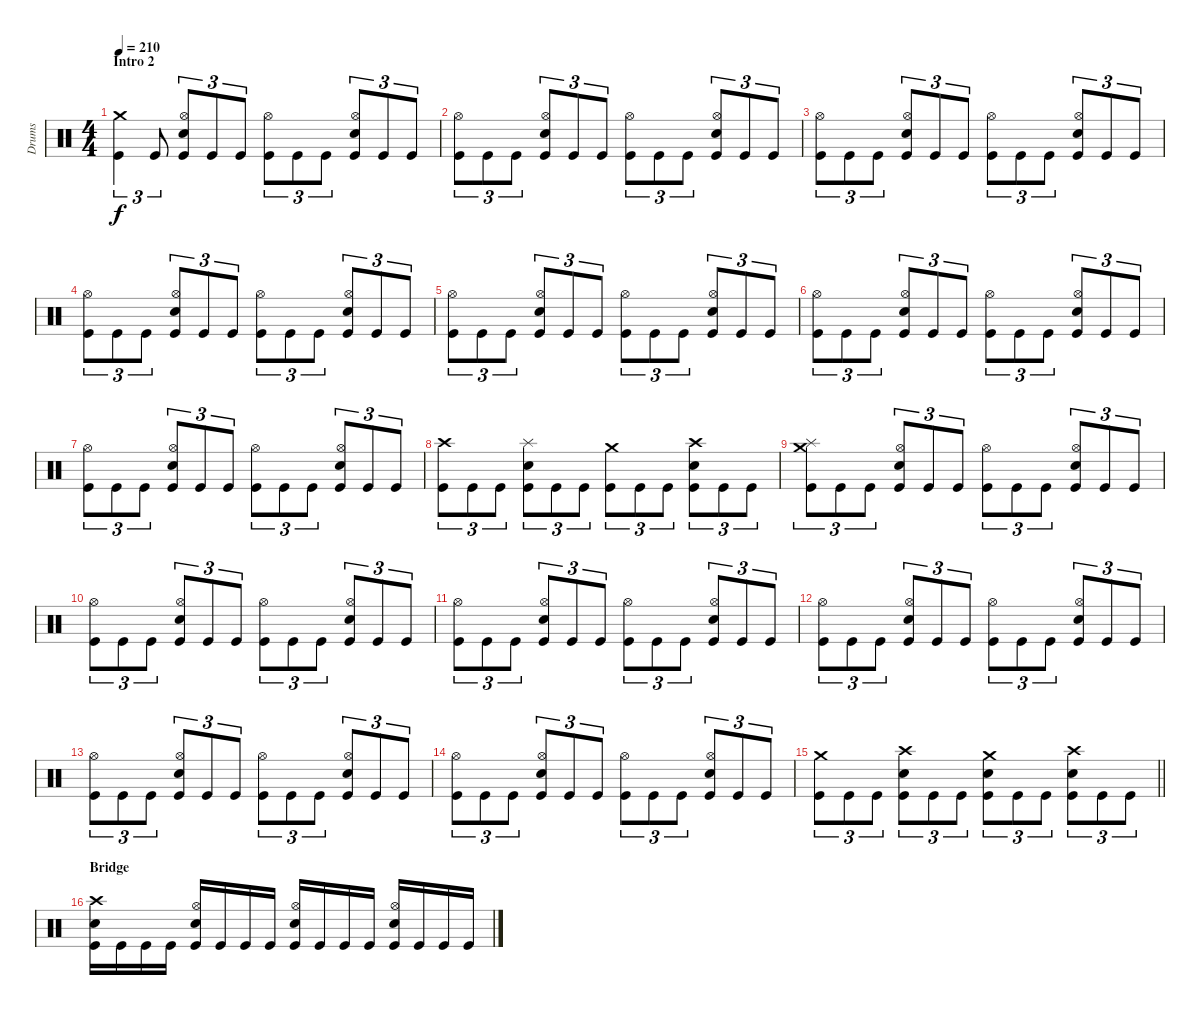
\track ("Drums" "Drums") {instrument percussion}
\staff {score}
\articulation defaults
\ts (4 4)
\section ("" "Intro 2")
\tempo 210
\clef neutral
\ks c
("Crash medium (hit)" "Kick (hit)").4{tu (3 2) dy f} "Kick (hit)".8{tu (3 2)} ("Hi-Hat (open)" "Electric Snare (hit)" "Kick (hit)").8{tu (3 2)} "Kick (hit)".8{tu (3 2)} "Kick (hit)".8{tu (3 2)} ("Hi-Hat (open)" "Kick (hit)").8{tu (3 2)} "Kick (hit)".8{tu (3 2)} "Kick (hit)".8{tu (3 2)} ("Hi-Hat (open)" "Electric Snare (hit)" "Kick (hit)").8{tu (3 2)} "Kick (hit)".8{tu (3 2)} "Kick (hit)".8{tu (3 2)} |
("Hi-Hat (open)" "Kick (hit)").8{tu (3 2)} "Kick (hit)".8{tu (3 2)} "Kick (hit)".8{tu (3 2)} ("Hi-Hat (open)" "Electric Snare (hit)" "Kick (hit)").8{tu (3 2)} "Kick (hit)".8{tu (3 2)} "Kick (hit)".8{tu (3 2)} ("Hi-Hat (open)" "Kick (hit)").8{tu (3 2)} "Kick (hit)".8{tu (3 2)} "Kick (hit)".8{tu (3 2)} ("Hi-Hat (open)" "Electric Snare (hit)" "Kick (hit)").8{tu (3 2)} "Kick (hit)".8{tu (3 2)} "Kick (hit)".8{tu (3 2)} |
("Hi-Hat (open)" "Kick (hit)").8{tu (3 2)} "Kick (hit)".8{tu (3 2)} "Kick (hit)".8{tu (3 2)} ("Hi-Hat (open)" "Electric Snare (hit)" "Kick (hit)").8{tu (3 2)} "Kick (hit)".8{tu (3 2)} "Kick (hit)".8{tu (3 2)} ("Hi-Hat (open)" "Kick (hit)").8{tu (3 2)} "Kick (hit)".8{tu (3 2)} "Kick (hit)".8{tu (3 2)} ("Hi-Hat (open)" "Electric Snare (hit)" "Kick (hit)").8{tu (3 2)} "Kick (hit)".8{tu (3 2)} "Kick (hit)".8{tu (3 2)} |
("Hi-Hat (open)" "Kick (hit)").8{tu (3 2)} "Kick (hit)".8{tu (3 2)} "Kick (hit)".8{tu (3 2)} ("Hi-Hat (open)" "Electric Snare (hit)" "Kick (hit)").8{tu (3 2)} "Kick (hit)".8{tu (3 2)} "Kick (hit)".8{tu (3 2)} ("Hi-Hat (open)" "Kick (hit)").8{tu (3 2)} "Kick (hit)".8{tu (3 2)} "Kick (hit)".8{tu (3 2)} ("Hi-Hat (open)" "Electric Snare (hit)" "Kick (hit)").8{tu (3 2)} "Kick (hit)".8{tu (3 2)} "Kick (hit)".8{tu (3 2)} |
("Hi-Hat (open)" "Kick (hit)").8{tu (3 2)} "Kick (hit)".8{tu (3 2)} "Kick (hit)".8{tu (3 2)} ("Hi-Hat (open)" "Electric Snare (hit)" "Kick (hit)").8{tu (3 2)} "Kick (hit)".8{tu (3 2)} "Kick (hit)".8{tu (3 2)} ("Hi-Hat (open)" "Kick (hit)").8{tu (3 2)} "Kick (hit)".8{tu (3 2)} "Kick (hit)".8{tu (3 2)} ("Hi-Hat (open)" "Electric Snare (hit)" "Kick (hit)").8{tu (3 2)} "Kick (hit)".8{tu (3 2)} "Kick (hit)".8{tu (3 2)} |
("Hi-Hat (open)" "Kick (hit)").8{tu (3 2)} "Kick (hit)".8{tu (3 2)} "Kick (hit)".8{tu (3 2)} ("Hi-Hat (open)" "Electric Snare (hit)" "Kick (hit)").8{tu (3 2)} "Kick (hit)".8{tu (3 2)} "Kick (hit)".8{tu (3 2)} ("Hi-Hat (open)" "Kick (hit)").8{tu (3 2)} "Kick (hit)".8{tu (3 2)} "Kick (hit)".8{tu (3 2)} ("Hi-Hat (open)" "Electric Snare (hit)" "Kick (hit)").8{tu (3 2)} "Kick (hit)".8{tu (3 2)} "Kick (hit)".8{tu (3 2)} |
("Hi-Hat (open)" "Kick (hit)").8{tu (3 2)} "Kick (hit)".8{tu (3 2)} "Kick (hit)".8{tu (3 2)} ("Hi-Hat (open)" "Electric Snare (hit)" "Kick (hit)").8{tu (3 2)} "Kick (hit)".8{tu (3 2)} "Kick (hit)".8{tu (3 2)} ("Hi-Hat (open)" "Kick (hit)").8{tu (3 2)} "Kick (hit)".8{tu (3 2)} "Kick (hit)".8{tu (3 2)} ("Hi-Hat (open)" "Electric Snare (hit)" "Kick (hit)").8{tu (3 2)} "Kick (hit)".8{tu (3 2)} "Kick (hit)".8{tu (3 2)} |
("Crash high (hit)" "Kick (hit)").8{tu (3 2)} "Kick (hit)".8{tu (3 2)} "Kick (hit)".8{tu (3 2)} ("Splash (hit)" "Electric Snare (hit)" "Kick (hit)").8{tu (3 2)} "Kick (hit)".8{tu (3 2)} "Kick (hit)".8{tu (3 2)} ("Crash medium (hit)" "Kick (hit)").8{tu (3 2)} "Kick (hit)".8{tu (3 2)} "Kick (hit)".8{tu (3 2)} ("Crash high (hit)" "Electric Snare (hit)" "Kick (hit)").8{tu (3 2)} "Kick (hit)".8{tu (3 2)} "Kick (hit)".8{tu (3 2)} |
("Crash medium (hit)" "Splash (hit)" "Kick (hit)").8{tu (3 2)} "Kick (hit)".8{tu (3 2)} "Kick (hit)".8{tu (3 2)} ("Hi-Hat (open)" "Electric Snare (hit)" "Kick (hit)").8{tu (3 2)} "Kick (hit)".8{tu (3 2)} "Kick (hit)".8{tu (3 2)} ("Hi-Hat (open)" "Kick (hit)").8{tu (3 2)} "Kick (hit)".8{tu (3 2)} "Kick (hit)".8{tu (3 2)} ("Hi-Hat (open)" "Electric Snare (hit)" "Kick (hit)").8{tu (3 2)} "Kick (hit)".8{tu (3 2)} "Kick (hit)".8{tu (3 2)} |
("Hi-Hat (open)" "Kick (hit)").8{tu (3 2)} "Kick (hit)".8{tu (3 2)} "Kick (hit)".8{tu (3 2)} ("Hi-Hat (open)" "Electric Snare (hit)" "Kick (hit)").8{tu (3 2)} "Kick (hit)".8{tu (3 2)} "Kick (hit)".8{tu (3 2)} ("Hi-Hat (open)" "Kick (hit)").8{tu (3 2)} "Kick (hit)".8{tu (3 2)} "Kick (hit)".8{tu (3 2)} ("Hi-Hat (open)" "Electric Snare (hit)" "Kick (hit)").8{tu (3 2)} "Kick (hit)".8{tu (3 2)} "Kick (hit)".8{tu (3 2)} |
("Hi-Hat (open)" "Kick (hit)").8{tu (3 2)} "Kick (hit)".8{tu (3 2)} "Kick (hit)".8{tu (3 2)} ("Hi-Hat (open)" "Electric Snare (hit)" "Kick (hit)").8{tu (3 2)} "Kick (hit)".8{tu (3 2)} "Kick (hit)".8{tu (3 2)} ("Hi-Hat (open)" "Kick (hit)").8{tu (3 2)} "Kick (hit)".8{tu (3 2)} "Kick (hit)".8{tu (3 2)} ("Hi-Hat (open)" "Electric Snare (hit)" "Kick (hit)").8{tu (3 2)} "Kick (hit)".8{tu (3 2)} "Kick (hit)".8{tu (3 2)} |
("Hi-Hat (open)" "Kick (hit)").8{tu (3 2)} "Kick (hit)".8{tu (3 2)} "Kick (hit)".8{tu (3 2)} ("Hi-Hat (open)" "Electric Snare (hit)" "Kick (hit)").8{tu (3 2)} "Kick (hit)".8{tu (3 2)} "Kick (hit)".8{tu (3 2)} ("Hi-Hat (open)" "Kick (hit)").8{tu (3 2)} "Kick (hit)".8{tu (3 2)} "Kick (hit)".8{tu (3 2)} ("Hi-Hat (open)" "Electric Snare (hit)" "Kick (hit)").8{tu (3 2)} "Kick (hit)".8{tu (3 2)} "Kick (hit)".8{tu (3 2)} |
("Hi-Hat (open)" "Kick (hit)").8{tu (3 2)} "Kick (hit)".8{tu (3 2)} "Kick (hit)".8{tu (3 2)} ("Hi-Hat (open)" "Electric Snare (hit)" "Kick (hit)").8{tu (3 2)} "Kick (hit)".8{tu (3 2)} "Kick (hit)".8{tu (3 2)} ("Hi-Hat (open)" "Kick (hit)").8{tu (3 2)} "Kick (hit)".8{tu (3 2)} "Kick (hit)".8{tu (3 2)} ("Hi-Hat (open)" "Electric Snare (hit)" "Kick (hit)").8{tu (3 2)} "Kick (hit)".8{tu (3 2)} "Kick (hit)".8{tu (3 2)} |
("Hi-Hat (open)" "Kick (hit)").8{tu (3 2)} "Kick (hit)".8{tu (3 2)} "Kick (hit)".8{tu (3 2)} ("Hi-Hat (open)" "Electric Snare (hit)" "Kick (hit)").8{tu (3 2)} "Kick (hit)".8{tu (3 2)} "Kick (hit)".8{tu (3 2)} ("Hi-Hat (open)" "Kick (hit)").8{tu (3 2)} "Kick (hit)".8{tu (3 2)} "Kick (hit)".8{tu (3 2)} ("Hi-Hat (open)" "Electric Snare (hit)" "Kick (hit)").8{tu (3 2)} "Kick (hit)".8{tu (3 2)} "Kick (hit)".8{tu (3 2)} |
\barLineRight lightlight
("Crash medium (hit)" "Kick (hit)").8{tu (3 2)} "Kick (hit)".8{tu (3 2)} "Kick (hit)".8{tu (3 2)} ("Crash high (hit)" "Electric Snare (hit)" "Kick (hit)").8{tu (3 2)} "Kick (hit)".8{tu (3 2)} "Kick (hit)".8{tu (3 2)} ("Crash medium (hit)" "Electric Snare (hit)" "Kick (hit)").8{tu (3 2)} "Kick (hit)".8{tu (3 2)} "Kick (hit)".8{tu (3 2)} ("Crash high (hit)" "Electric Snare (hit)" "Kick (hit)").8{tu (3 2)} "Kick (hit)".8{tu (3 2)} "Kick (hit)".8{tu (3 2)} |
\section ("" "Bridge")
("Crash high (hit)" "Electric Snare (hit)" "Kick (hit)").16 "Kick (hit)".16 "Kick (hit)".16 "Kick (hit)".16 ("Hi-Hat (open)" "Electric Snare (hit)" "Kick (hit)").16 "Kick (hit)".16 "Kick (hit)".16 "Kick (hit)".16 ("Hi-Hat (open)" "Electric Snare (hit)" "Kick (hit)").16 "Kick (hit)".16 "Kick (hit)".16 "Kick (hit)".16 ("Hi-Hat (open)" "Electric Snare (hit)" "Kick (hit)").16 "Kick (hit)".16 "Kick (hit)".16 "Kick (hit)".16
